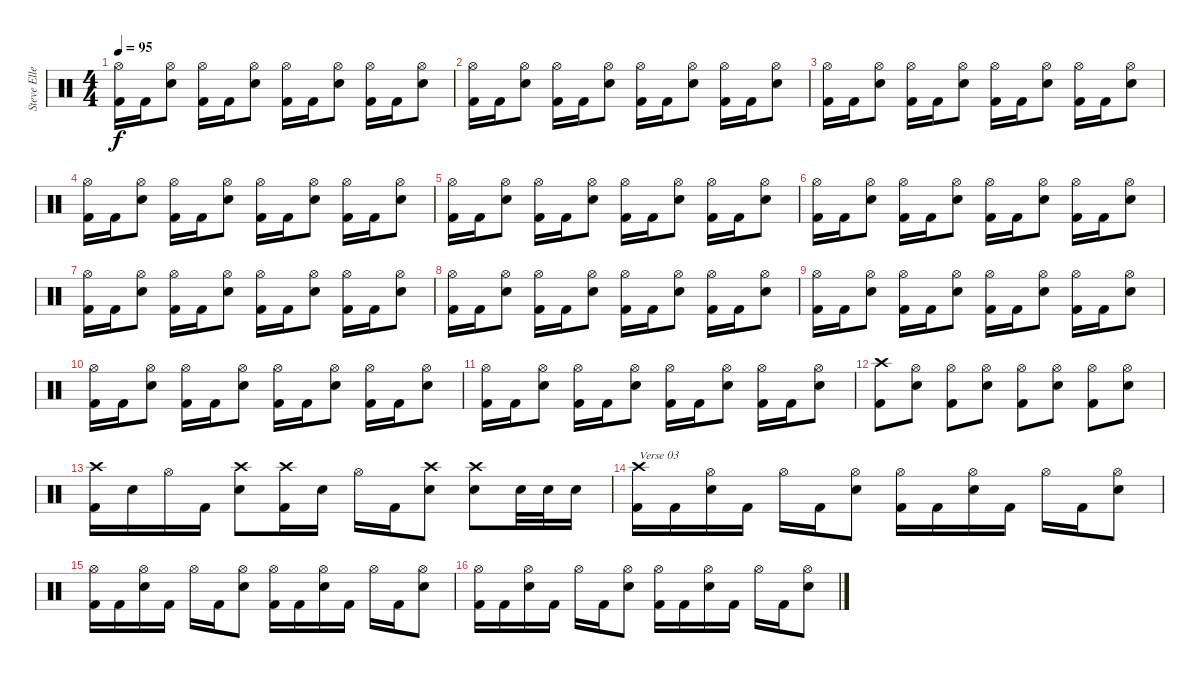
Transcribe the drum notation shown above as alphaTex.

\track ("Steve Ellett" "Steve Elle") {instrument percussion}
\staff {score}
\articulation defaults
\ts (4 4)
\tempo 95
\clef neutral
\ks c
("Hi-Hat (open)" "Kick (hit) 2").16{dy f} "Kick (hit) 2".16 ("Hi-Hat (open)" "Snare (hit) 2").8 ("Hi-Hat (open)" "Kick (hit) 2").16 "Kick (hit) 2".16 ("Hi-Hat (open)" "Snare (hit) 2").8 ("Hi-Hat (open)" "Kick (hit) 2").16 "Kick (hit) 2".16 ("Hi-Hat (open)" "Snare (hit) 2").8 ("Hi-Hat (open)" "Kick (hit) 2").16 "Kick (hit) 2".16 ("Hi-Hat (open)" "Snare (hit) 2").8 |
("Hi-Hat (open)" "Kick (hit) 2").16 "Kick (hit) 2".16 ("Hi-Hat (open)" "Snare (hit) 2").8 ("Hi-Hat (open)" "Kick (hit) 2").16 "Kick (hit) 2".16 ("Hi-Hat (open)" "Snare (hit) 2").8 ("Hi-Hat (open)" "Kick (hit) 2").16 "Kick (hit) 2".16 ("Hi-Hat (open)" "Snare (hit) 2").8 ("Hi-Hat (open)" "Kick (hit) 2").16 "Kick (hit) 2".16 ("Hi-Hat (open)" "Snare (hit) 2").8 |
("Hi-Hat (open)" "Kick (hit) 2").16 "Kick (hit) 2".16 ("Hi-Hat (open)" "Snare (hit) 2").8 ("Hi-Hat (open)" "Kick (hit) 2").16 "Kick (hit) 2".16 ("Hi-Hat (open)" "Snare (hit) 2").8 ("Hi-Hat (open)" "Kick (hit) 2").16 "Kick (hit) 2".16 ("Hi-Hat (open)" "Snare (hit) 2").8 ("Hi-Hat (open)" "Kick (hit) 2").16 "Kick (hit) 2".16 ("Hi-Hat (open)" "Snare (hit) 2").8 |
("Hi-Hat (open)" "Kick (hit) 2").16 "Kick (hit) 2".16 ("Hi-Hat (open)" "Snare (hit) 2").8 ("Hi-Hat (open)" "Kick (hit) 2").16 "Kick (hit) 2".16 ("Hi-Hat (open)" "Snare (hit) 2").8 ("Hi-Hat (open)" "Kick (hit) 2").16 "Kick (hit) 2".16 ("Hi-Hat (open)" "Snare (hit) 2").8 ("Hi-Hat (open)" "Kick (hit) 2").16 "Kick (hit) 2".16 ("Hi-Hat (open)" "Snare (hit) 2").8 |
("Hi-Hat (open)" "Kick (hit) 2").16 "Kick (hit) 2".16 ("Hi-Hat (open)" "Snare (hit) 2").8 ("Hi-Hat (open)" "Kick (hit) 2").16 "Kick (hit) 2".16 ("Hi-Hat (open)" "Snare (hit) 2").8 ("Hi-Hat (open)" "Kick (hit) 2").16 "Kick (hit) 2".16 ("Hi-Hat (open)" "Snare (hit) 2").8 ("Hi-Hat (open)" "Kick (hit) 2").16 "Kick (hit) 2".16 ("Hi-Hat (open)" "Snare (hit) 2").8 |
("Hi-Hat (open)" "Kick (hit) 2").16 "Kick (hit) 2".16 ("Hi-Hat (open)" "Snare (hit) 2").8 ("Hi-Hat (open)" "Kick (hit) 2").16 "Kick (hit) 2".16 ("Hi-Hat (open)" "Snare (hit) 2").8 ("Hi-Hat (open)" "Kick (hit) 2").16 "Kick (hit) 2".16 ("Hi-Hat (open)" "Snare (hit) 2").8 ("Hi-Hat (open)" "Kick (hit) 2").16 "Kick (hit) 2".16 ("Hi-Hat (open)" "Snare (hit) 2").8 |
("Hi-Hat (open)" "Kick (hit) 2").16 "Kick (hit) 2".16 ("Hi-Hat (open)" "Snare (hit) 2").8 ("Hi-Hat (open)" "Kick (hit) 2").16 "Kick (hit) 2".16 ("Hi-Hat (open)" "Snare (hit) 2").8 ("Hi-Hat (open)" "Kick (hit) 2").16 "Kick (hit) 2".16 ("Hi-Hat (open)" "Snare (hit) 2").8 ("Hi-Hat (open)" "Kick (hit) 2").16 "Kick (hit) 2".16 ("Hi-Hat (open)" "Snare (hit) 2").8 |
("Hi-Hat (open)" "Kick (hit) 2").16 "Kick (hit) 2".16 ("Hi-Hat (open)" "Snare (hit) 2").8 ("Hi-Hat (open)" "Kick (hit) 2").16 "Kick (hit) 2".16 ("Hi-Hat (open)" "Snare (hit) 2").8 ("Hi-Hat (open)" "Kick (hit) 2").16 "Kick (hit) 2".16 ("Hi-Hat (open)" "Snare (hit) 2").8 ("Hi-Hat (open)" "Kick (hit) 2").16 "Kick (hit) 2".16 ("Hi-Hat (open)" "Snare (hit) 2").8 |
("Hi-Hat (open)" "Kick (hit) 2").16 "Kick (hit) 2".16 ("Hi-Hat (open)" "Snare (hit) 2").8 ("Hi-Hat (open)" "Kick (hit) 2").16 "Kick (hit) 2".16 ("Hi-Hat (open)" "Snare (hit) 2").8 ("Hi-Hat (open)" "Kick (hit) 2").16 "Kick (hit) 2".16 ("Hi-Hat (open)" "Snare (hit) 2").8 ("Hi-Hat (open)" "Kick (hit) 2").16 "Kick (hit) 2".16 ("Hi-Hat (open)" "Snare (hit) 2").8 |
("Hi-Hat (open)" "Kick (hit) 2").16 "Kick (hit) 2".16 ("Hi-Hat (open)" "Snare (hit) 2").8 ("Hi-Hat (open)" "Kick (hit) 2").16 "Kick (hit) 2".16 ("Hi-Hat (open)" "Snare (hit) 2").8 ("Hi-Hat (open)" "Kick (hit) 2").16 "Kick (hit) 2".16 ("Hi-Hat (open)" "Snare (hit) 2").8 ("Hi-Hat (open)" "Kick (hit) 2").16 "Kick (hit) 2".16 ("Hi-Hat (open)" "Snare (hit) 2").8 |
("Hi-Hat (open)" "Kick (hit) 2").16 "Kick (hit) 2".16 ("Hi-Hat (open)" "Snare (hit) 2").8 ("Hi-Hat (open)" "Kick (hit) 2").16 "Kick (hit) 2".16 ("Hi-Hat (open)" "Snare (hit) 2").8 ("Hi-Hat (open)" "Kick (hit) 2").16 "Kick (hit) 2".16 ("Hi-Hat (open)" "Snare (hit) 2").8 ("Hi-Hat (open)" "Kick (hit) 2").16 "Kick (hit) 2".16 ("Hi-Hat (open)" "Snare (hit) 2").8 |
("Crash high (hit)" "Kick (hit) 2").8 ("Hi-Hat (open)" "Snare (hit) 2").8 ("Hi-Hat (open)" "Kick (hit) 2").8 ("Hi-Hat (open)" "Snare (hit) 2").8 ("Hi-Hat (open)" "Kick (hit) 2").8 ("Hi-Hat (open)" "Snare (hit) 2").8 ("Hi-Hat (open)" "Kick (hit) 2").8 ("Hi-Hat (open)" "Snare (hit) 2").8 |
("Crash high (hit)" "Kick (hit) 2").16 "Snare (hit) 2".16 "Hi-Hat (open)".16 "Kick (hit) 2".16 ("Crash high (hit)" "Snare (hit) 2").8 ("Crash high (hit)" "Kick (hit) 2").16 "Snare (hit) 2".16 "Hi-Hat (open)".16 "Kick (hit) 2".16 ("Crash high (hit)" "Snare (hit) 2").8 ("Crash high (hit)" "Snare (hit) 2").8 "Snare (hit) 2".32 "Snare (hit) 2".32 "Snare (hit) 2".16 |
("Crash high (hit)" "Kick (hit) 2").16{txt "Verse 03"} "Kick (hit) 2".16 ("Hi-Hat (open)" "Snare (hit) 2").16 "Kick (hit) 2".16 "Hi-Hat (open)".16 "Kick (hit) 2".16 ("Hi-Hat (open)" "Snare (hit) 2").8 ("Hi-Hat (open)" "Kick (hit) 2").16 "Kick (hit) 2".16 ("Hi-Hat (open)" "Snare (hit) 2").16 "Kick (hit) 2".16 "Hi-Hat (open)".16 "Kick (hit) 2".16 ("Hi-Hat (open)" "Snare (hit) 2").8 |
("Hi-Hat (open)" "Kick (hit) 2").16 "Kick (hit) 2".16 ("Hi-Hat (open)" "Snare (hit) 2").16 "Kick (hit) 2".16 "Hi-Hat (open)".16 "Kick (hit) 2".16 ("Hi-Hat (open)" "Snare (hit) 2").8 ("Hi-Hat (open)" "Kick (hit) 2").16 "Kick (hit) 2".16 ("Hi-Hat (open)" "Snare (hit) 2").16 "Kick (hit) 2".16 "Hi-Hat (open)".16 "Kick (hit) 2".16 ("Hi-Hat (open)" "Snare (hit) 2").8 |
("Hi-Hat (open)" "Kick (hit) 2").16 "Kick (hit) 2".16 ("Hi-Hat (open)" "Snare (hit) 2").16 "Kick (hit) 2".16 "Hi-Hat (open)".16 "Kick (hit) 2".16 ("Hi-Hat (open)" "Snare (hit) 2").8 ("Hi-Hat (open)" "Kick (hit) 2").16 "Kick (hit) 2".16 ("Hi-Hat (open)" "Snare (hit) 2").16 "Kick (hit) 2".16 "Hi-Hat (open)".16 "Kick (hit) 2".16 ("Hi-Hat (open)" "Snare (hit) 2").8
